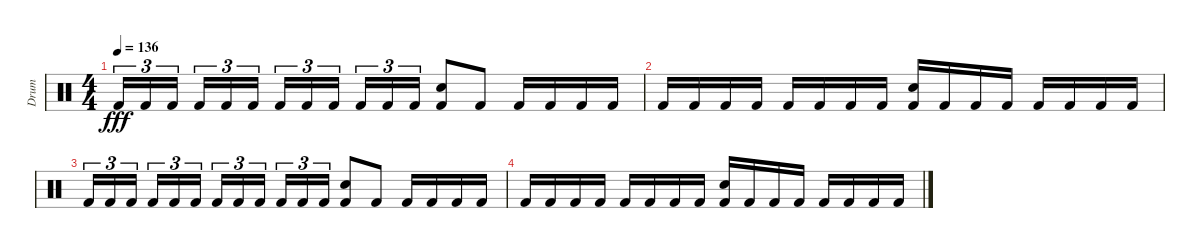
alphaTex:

\track ("Drum" "Drum") {instrument percussion}
\staff {score}
\articulation defaults
\ts (4 4)
\tempo 136
\clef neutral
\ks c "Kick (hit) 2".16{tu (3 2) dy fff} "Kick (hit) 2".16{tu (3 2)} "Kick (hit) 2".16{tu (3 2) beam splitsecondary} "Kick (hit) 2".16{tu (3 2)} "Kick (hit) 2".16{tu (3 2)} "Kick (hit) 2".16{tu (3 2)} "Kick (hit) 2".16{tu (3 2)} "Kick (hit) 2".16{tu (3 2)} "Kick (hit) 2".16{tu (3 2) beam splitsecondary} "Kick (hit) 2".16{tu (3 2)} "Kick (hit) 2".16{tu (3 2)} "Kick (hit) 2".16{tu (3 2)}
("Electric Snare (hit)" "Kick (hit) 2").8 "Kick (hit) 2".8 "Kick (hit) 2".16 "Kick (hit) 2".16 "Kick (hit) 2".16 "Kick (hit) 2".16 |
"Kick (hit) 2".16{volume 0} "Kick (hit) 2".16 "Kick (hit) 2".16 "Kick (hit) 2".16 "Kick (hit) 2".16 "Kick (hit) 2".16 "Kick (hit) 2".16 "Kick (hit) 2".16 ("Electric Snare (hit)" "Kick (hit) 2").16 "Kick (hit) 2".16 "Kick (hit) 2".16 "Kick (hit) 2".16 "Kick (hit) 2".16 "Kick (hit) 2".16 "Kick (hit) 2".16 "Kick (hit) 2".16 |
"Kick (hit) 2".16{tu (3 2)} "Kick (hit) 2".16{tu (3 2)} "Kick (hit) 2".16{tu (3 2) beam splitsecondary} "Kick (hit) 2".16{tu (3 2)} "Kick (hit) 2".16{tu (3 2)} "Kick (hit) 2".16{tu (3 2)} "Kick (hit) 2".16{tu (3 2)} "Kick (hit) 2".16{tu (3 2)} "Kick (hit) 2".16{tu (3 2) beam splitsecondary} "Kick (hit) 2".16{tu (3 2)} "Kick (hit) 2".16{tu (3 2)} "Kick (hit) 2".16{tu (3 2)} ("Electric Snare (hit)" "Kick (hit) 2").8 "Kick (hit) 2".8 "Kick (hit) 2".16 "Kick (hit) 2".16 "Kick (hit) 2".16 "Kick (hit) 2".16 |
"Kick (hit) 2".16 "Kick (hit) 2".16 "Kick (hit) 2".16 "Kick (hit) 2".16 "Kick (hit) 2".16 "Kick (hit) 2".16 "Kick (hit) 2".16 "Kick (hit) 2".16 ("Electric Snare (hit)" "Kick (hit) 2").16 "Kick (hit) 2".16 "Kick (hit) 2".16 "Kick (hit) 2".16 "Kick (hit) 2".16 "Kick (hit) 2".16 "Kick (hit) 2".16 "Kick (hit) 2".16
